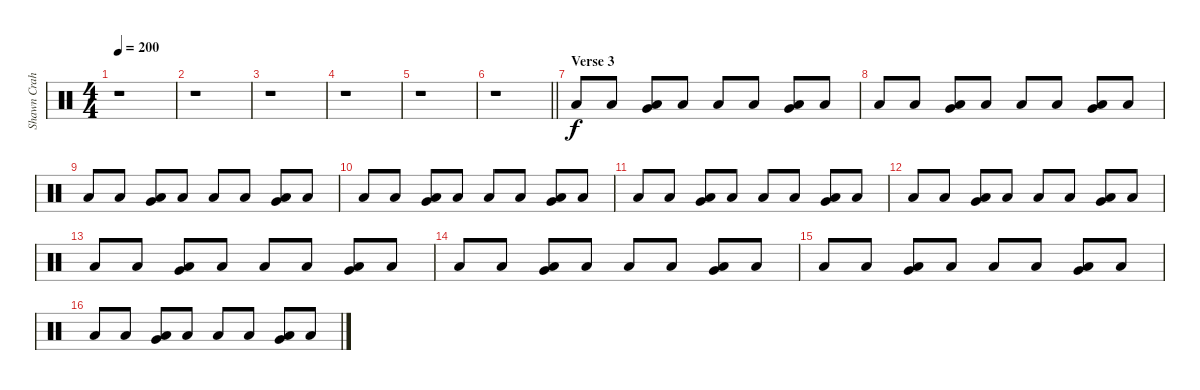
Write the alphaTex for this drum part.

\track ("Shawn Crahan" "Shawn Crah") {instrument percussion}
\staff {score}
\articulation defaults
\ts (4 4)
\tempo 200
\clef neutral
\ks c
r.1{dy f} |
r.1 |
r.1 |
r.1 |
r.1 |
\barLineRight lightlight
r.1 |
\section ("" "Verse 3")
"Low Floor Tom (hit)".8 "Low Floor Tom (hit)".8 ("Very Low Tom (hit)" "Low Floor Tom (hit)").8 "Low Floor Tom (hit)".8 "Low Floor Tom (hit)".8 "Low Floor Tom (hit)".8 ("Very Low Tom (hit)" "Low Floor Tom (hit)").8 "Low Floor Tom (hit)".8 |
"Low Floor Tom (hit)".8 "Low Floor Tom (hit)".8 ("Very Low Tom (hit)" "Low Floor Tom (hit)").8 "Low Floor Tom (hit)".8 "Low Floor Tom (hit)".8 "Low Floor Tom (hit)".8 ("Very Low Tom (hit)" "Low Floor Tom (hit)").8 "Low Floor Tom (hit)".8 |
"Low Floor Tom (hit)".8 "Low Floor Tom (hit)".8 ("Very Low Tom (hit)" "Low Floor Tom (hit)").8 "Low Floor Tom (hit)".8 "Low Floor Tom (hit)".8 "Low Floor Tom (hit)".8 ("Very Low Tom (hit)" "Low Floor Tom (hit)").8 "Low Floor Tom (hit)".8 |
"Low Floor Tom (hit)".8 "Low Floor Tom (hit)".8 ("Very Low Tom (hit)" "Low Floor Tom (hit)").8 "Low Floor Tom (hit)".8 "Low Floor Tom (hit)".8 "Low Floor Tom (hit)".8 ("Very Low Tom (hit)" "Low Floor Tom (hit)").8 "Low Floor Tom (hit)".8 |
"Low Floor Tom (hit)".8 "Low Floor Tom (hit)".8 ("Very Low Tom (hit)" "Low Floor Tom (hit)").8 "Low Floor Tom (hit)".8 "Low Floor Tom (hit)".8 "Low Floor Tom (hit)".8 ("Very Low Tom (hit)" "Low Floor Tom (hit)").8 "Low Floor Tom (hit)".8 |
"Low Floor Tom (hit)".8 "Low Floor Tom (hit)".8 ("Very Low Tom (hit)" "Low Floor Tom (hit)").8 "Low Floor Tom (hit)".8 "Low Floor Tom (hit)".8 "Low Floor Tom (hit)".8 ("Very Low Tom (hit)" "Low Floor Tom (hit)").8 "Low Floor Tom (hit)".8 |
"Low Floor Tom (hit)".8 "Low Floor Tom (hit)".8 ("Very Low Tom (hit)" "Low Floor Tom (hit)").8 "Low Floor Tom (hit)".8 "Low Floor Tom (hit)".8 "Low Floor Tom (hit)".8 ("Very Low Tom (hit)" "Low Floor Tom (hit)").8 "Low Floor Tom (hit)".8 |
"Low Floor Tom (hit)".8 "Low Floor Tom (hit)".8 ("Very Low Tom (hit)" "Low Floor Tom (hit)").8 "Low Floor Tom (hit)".8 "Low Floor Tom (hit)".8 "Low Floor Tom (hit)".8 ("Very Low Tom (hit)" "Low Floor Tom (hit)").8 "Low Floor Tom (hit)".8 |
"Low Floor Tom (hit)".8 "Low Floor Tom (hit)".8 ("Very Low Tom (hit)" "Low Floor Tom (hit)").8 "Low Floor Tom (hit)".8 "Low Floor Tom (hit)".8 "Low Floor Tom (hit)".8 ("Very Low Tom (hit)" "Low Floor Tom (hit)").8 "Low Floor Tom (hit)".8 |
"Low Floor Tom (hit)".8 "Low Floor Tom (hit)".8 ("Very Low Tom (hit)" "Low Floor Tom (hit)").8 "Low Floor Tom (hit)".8 "Low Floor Tom (hit)".8 "Low Floor Tom (hit)".8 ("Very Low Tom (hit)" "Low Floor Tom (hit)").8 "Low Floor Tom (hit)".8
